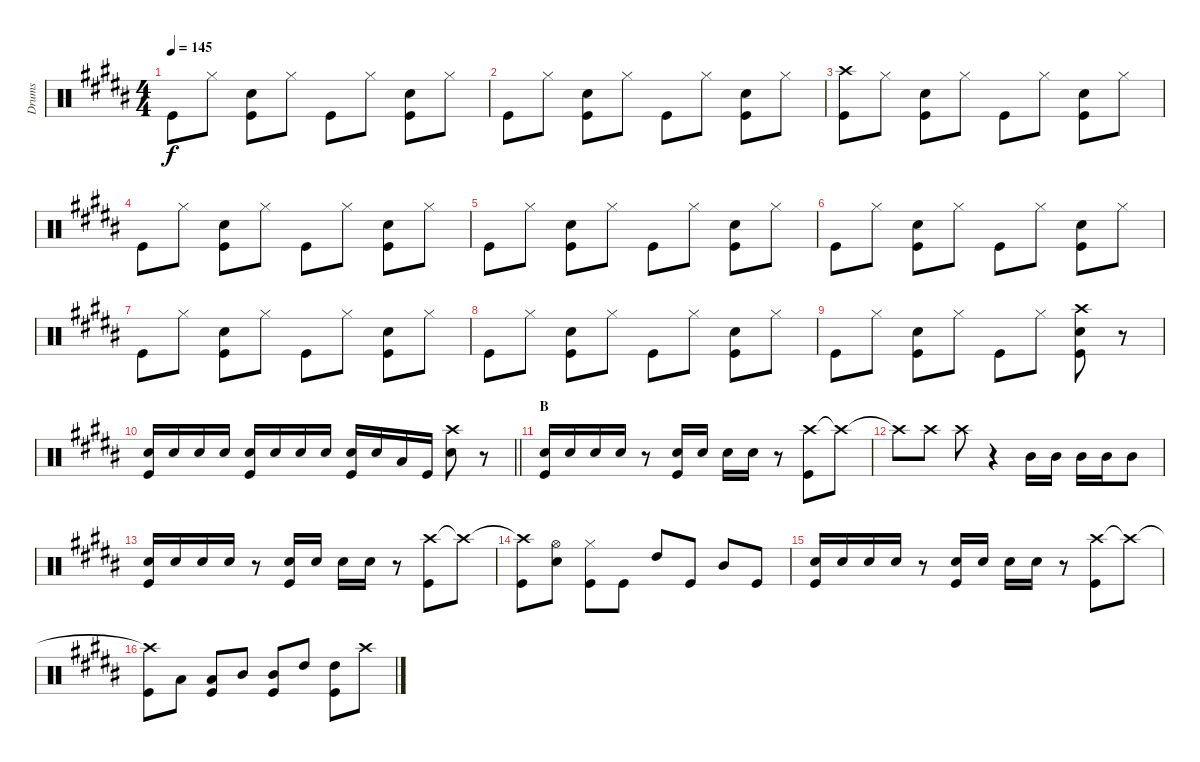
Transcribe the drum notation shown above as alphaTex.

\track ("Drums" "Drums") {instrument percussion}
\staff {score}
\articulation defaults
\ts (4 4)
\tempo 145
\clef neutral
\ks b "Kick (hit)".8{dy f} "Hi-Hat (closed)".8
("Snare (hit) 2" "Kick (hit)").8 "Hi-Hat (closed)".8 "Kick (hit)".8 "Hi-Hat (closed)".8 ("Snare (hit) 2" "Kick (hit)").8 "Hi-Hat (closed)".8 |
"Kick (hit)".8 "Hi-Hat (closed)".8 ("Snare (hit) 2" "Kick (hit)").8 "Hi-Hat (closed)".8 "Kick (hit)".8 "Hi-Hat (closed)".8 ("Snare (hit) 2" "Kick (hit)").8 "Hi-Hat (closed)".8 |
("Crash high (hit)" "Kick (hit)").8 "Hi-Hat (closed)".8 ("Snare (hit) 2" "Kick (hit)").8 "Hi-Hat (closed)".8 "Kick (hit)".8 "Hi-Hat (closed)".8 ("Snare (hit) 2" "Kick (hit)").8 "Hi-Hat (closed)".8 |
"Kick (hit)".8 "Hi-Hat (closed)".8 ("Snare (hit) 2" "Kick (hit)").8 "Hi-Hat (closed)".8 "Kick (hit)".8 "Hi-Hat (closed)".8 ("Snare (hit) 2" "Kick (hit)").8 "Hi-Hat (closed)".8 |
"Kick (hit)".8 "Hi-Hat (closed)".8 ("Snare (hit) 2" "Kick (hit)").8 "Hi-Hat (closed)".8 "Kick (hit)".8 "Hi-Hat (closed)".8 ("Snare (hit) 2" "Kick (hit)").8 "Hi-Hat (closed)".8 |
"Kick (hit)".8 "Hi-Hat (closed)".8 ("Snare (hit) 2" "Kick (hit)").8 "Hi-Hat (closed)".8 "Kick (hit)".8 "Hi-Hat (closed)".8 ("Snare (hit) 2" "Kick (hit)").8 "Hi-Hat (closed)".8 |
"Kick (hit)".8 "Hi-Hat (closed)".8 ("Snare (hit) 2" "Kick (hit)").8 "Hi-Hat (closed)".8 "Kick (hit)".8 "Hi-Hat (closed)".8 ("Snare (hit) 2" "Kick (hit)").8 "Hi-Hat (closed)".8 |
"Kick (hit)".8 "Hi-Hat (closed)".8 ("Snare (hit) 2" "Kick (hit)").8 "Hi-Hat (closed)".8 "Kick (hit)".8 "Hi-Hat (closed)".8 ("Snare (hit) 2" "Kick (hit)").8 "Hi-Hat (closed)".8 |
"Kick (hit)".8 "Hi-Hat (closed)".8 ("Snare (hit) 2" "Kick (hit)").8 "Hi-Hat (closed)".8 "Kick (hit)".8 "Hi-Hat (closed)".8 ("Crash high (hit)" "Snare (hit) 2" "Kick (hit)").8 r.8 |
\barLineRight lightlight
("Snare (hit) 2" "Kick (hit)").16 "Snare (hit) 2".16 "Snare (hit) 2".16 "Snare (hit) 2".16 ("Snare (hit) 2" "Kick (hit)").16 "Snare (hit) 2".16 "Snare (hit) 2".16 "Snare (hit) 2".16 ("Snare (hit) 2" "Kick (hit)").16 "Snare (hit) 2".16 "Low Tom (hit)".16 "Kick (hit)".16 ("Crash high (hit)" "Snare (hit) 2").8 r.8 |
\section ("" "B")
("Snare (hit) 2" "Kick (hit)").16 "Snare (hit) 2".16 "Snare (hit) 2".16 "Snare (hit) 2".16 r.8 ("Snare (hit) 2" "Kick (hit)").16 "Snare (hit) 2".16 "Snare (hit) 2".16 "Snare (hit) 2".16 r.8 ("Crash high (hit)" "Kick (hit)").8 "Crash high (hit)"{t}.8 |
"Crash high (hit)"{t}.8 "Crash high (hit)".8 "Crash high (hit)".8 r.4 "Mid Tom (hit)".16 "Mid Tom (hit)".16 "Mid Tom (hit)".16 "Mid Tom (hit)".16 "Mid Tom (hit)".8 |
("Snare (hit) 2" "Kick (hit)").16 "Snare (hit) 2".16 "Snare (hit) 2".16 "Snare (hit) 2".16 r.8 ("Snare (hit) 2" "Kick (hit)").16 "Snare (hit) 2".16 "Snare (hit) 2".16 "Snare (hit) 2".16 r.8 ("Crash high (hit)" "Kick (hit)").8 "Crash high (hit)"{t}.8 |
("Crash high (hit)"{t} "Kick (hit)").8 ("Hi-Hat (open)" "Snare (hit) 2").8 ("Hi-Hat (closed)" "Kick (hit)").8 "Kick (hit)".8 "High Tom (hit)".8 "Kick (hit)".8 "Mid Tom (hit)".8 "Kick (hit)".8 |
("Snare (hit) 2" "Kick (hit)").16 "Snare (hit) 2".16 "Snare (hit) 2".16 "Snare (hit) 2".16 r.8 ("Snare (hit) 2" "Kick (hit)").16 "Snare (hit) 2".16 "Snare (hit) 2".16 "Snare (hit) 2".16 r.8 ("Crash high (hit)" "Kick (hit)").8 "Crash high (hit)"{t}.8 |
("Crash high (hit)"{t} "Kick (hit)").8 "Low Tom (hit)".8 ("Low Tom (hit)" "Kick (hit)").8 "Mid Tom (hit)".8 ("Mid Tom (hit)" "Kick (hit)").8 "High Tom (hit)".8 ("High Tom (hit)" "Kick (hit)").8 "Crash high (hit)".8
